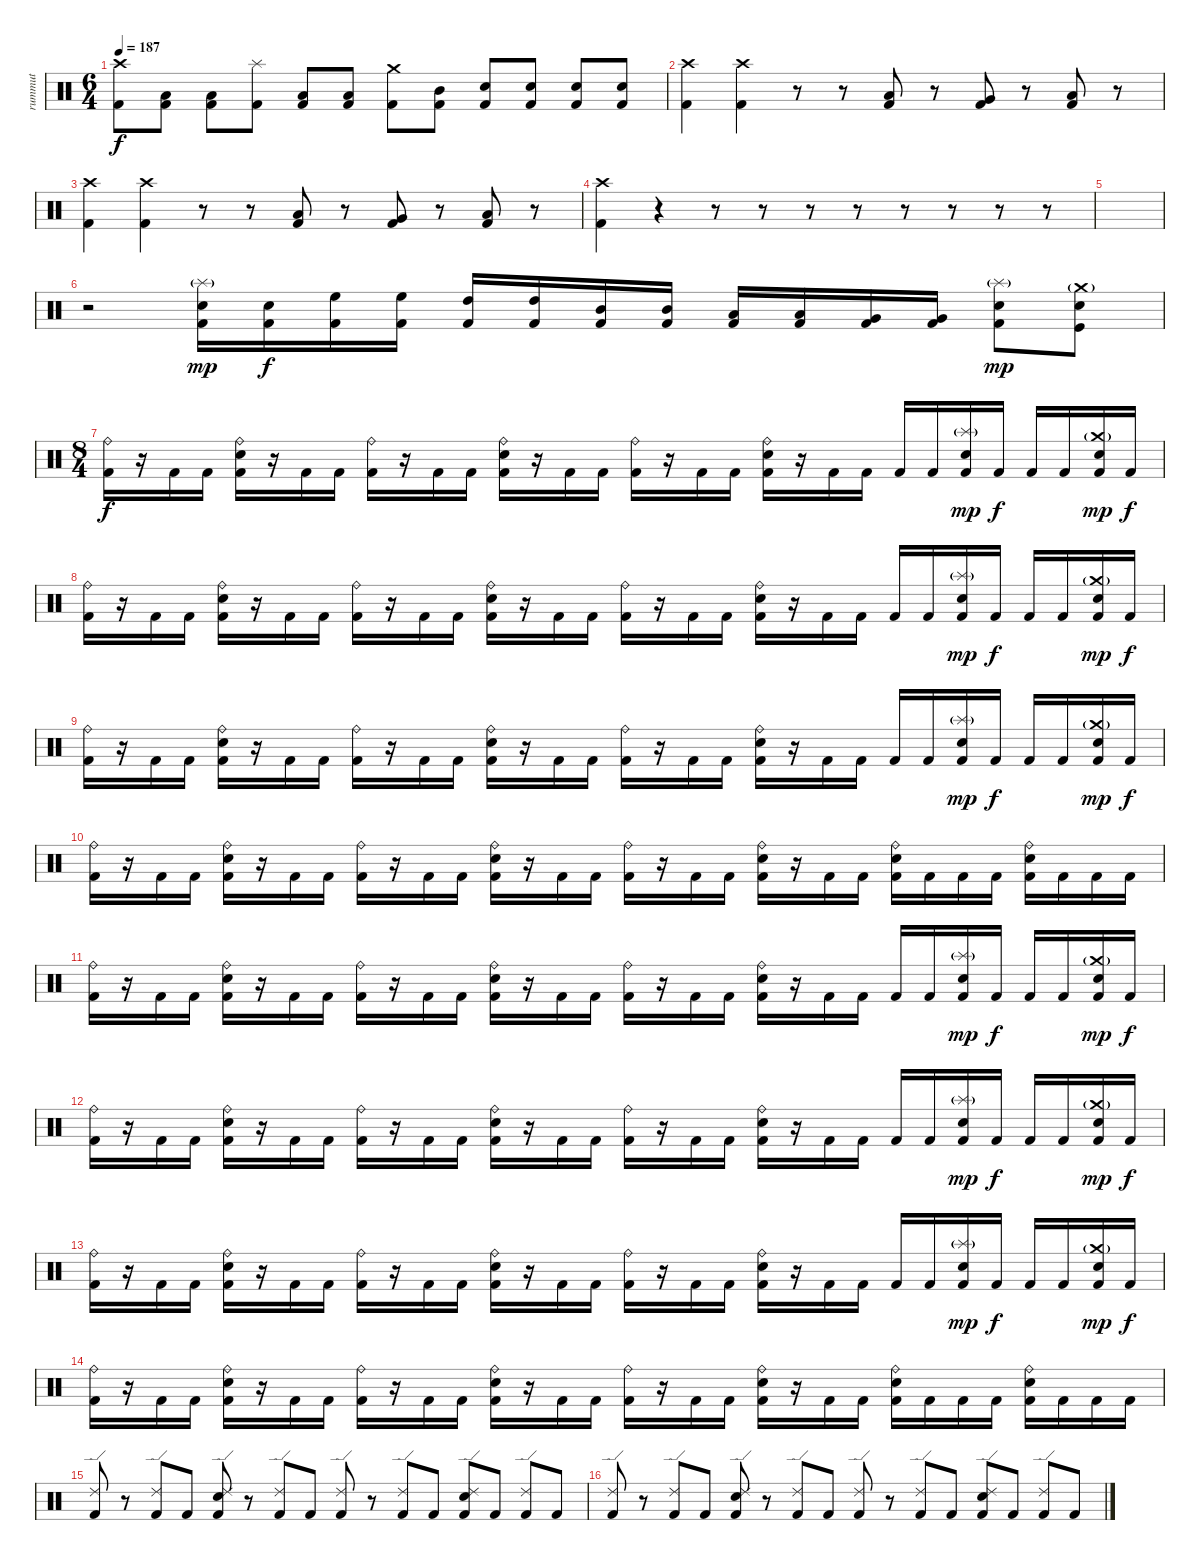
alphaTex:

\track ("rummut" "rummut") {instrument percussion}
\staff {score}
\articulation defaults
\ts (6 4)
\tempo 187
\clef neutral
\ks c
("Kick (hit) 2" "Crash high (hit)").8{dy f} ("Kick (hit) 2" "Low Tom (hit)").8 ("Kick (hit) 2" "Low Tom (hit)").8 ("Kick (hit) 2" "Splash (hit)").8 ("Kick (hit) 2" "Low Tom (hit)").8 ("Kick (hit) 2" "Low Tom (hit)").8 ("Kick (hit) 2" "Crash medium (hit)").8 ("Kick (hit) 2" "Mid Tom (hit)").8 ("Kick (hit) 2" "Snare (hit) 2").8 ("Kick (hit) 2" "Snare (hit) 2").8 ("Kick (hit) 2" "Snare (hit) 2").8 ("Kick (hit) 2" "Snare (hit) 2").8 |
("Kick (hit) 2" "Crash high (hit)").4 ("Kick (hit) 2" "Crash high (hit)").4 r.8 r.8 ("Kick (hit) 2" "Low Tom (hit)").8 r.8 ("Kick (hit) 2" "Very Low Tom (hit)").8 r.8 ("Kick (hit) 2" "Low Floor Tom (hit)").8 r.8 |
("Kick (hit) 2" "Crash high (hit)").4 ("Kick (hit) 2" "Crash high (hit)").4 r.8 r.8 ("Kick (hit) 2" "Low Tom (hit)").8 r.8 ("Kick (hit) 2" "Very Low Tom (hit)").8 r.8 ("Kick (hit) 2" "Low Floor Tom (hit)").8 r.8 |
("Kick (hit) 2" "Crash high (hit)").4 r.4 r.8 r.8 r.8 r.8 r.8 r.8 r.8 r.8 |
|
r.2 ("Kick (hit) 2" "Snare (hit) 2" "Splash (hit)"{g}).16{dy mp} ("Kick (hit) 2" "Snare (hit) 2").16{dy f} ("Kick (hit) 2" "High Floor Tom (hit)").16 ("Kick (hit) 2" "High Floor Tom (hit)").16 ("Kick (hit) 2" "High Tom (hit)").16 ("Kick (hit) 2" "High Tom (hit)").16 ("Kick (hit) 2" "Mid Tom (hit)").16 ("Kick (hit) 2" "Mid Tom (hit)").16 ("Kick (hit) 2" "Low Tom (hit)").16 ("Kick (hit) 2" "Low Tom (hit)").16 ("Kick (hit) 2" "Very Low Tom (hit)").16 ("Kick (hit) 2" "Very Low Tom (hit)").16 ("Kick (hit) 2" "Snare (hit) 2" "Splash (hit)"{g}).8{dy mp} ("Kick (hit)" "Snare (hit) 2" "Crash medium (hit)"{g}).8 |
\ts (8 4)
("Kick (hit) 2" "Ride (bell)").16{dy f} r.16 "Kick (hit) 2".16 "Kick (hit) 2".16 ("Kick (hit) 2" "Ride (bell)" "Snare (hit) 2").16 r.16 "Kick (hit) 2".16 "Kick (hit) 2".16 ("Kick (hit) 2" "Ride (bell)").16 r.16 "Kick (hit) 2".16 "Kick (hit) 2".16 ("Kick (hit) 2" "Ride (bell)" "Snare (hit) 2").16 r.16 "Kick (hit) 2".16 "Kick (hit) 2".16 ("Kick (hit) 2" "Ride (bell)").16 r.16 "Kick (hit) 2".16 "Kick (hit) 2".16 ("Kick (hit) 2" "Ride (bell)" "Snare (hit) 2").16 r.16 "Kick (hit) 2".16 "Kick (hit) 2".16 "Kick (hit) 2".16 "Kick (hit) 2".16 ("Kick (hit) 2" "Snare (hit) 2" "Splash (hit)"{g}).16{dy mp} "Kick (hit) 2".16{dy f} "Kick (hit) 2".16 "Kick (hit) 2".16 ("Kick (hit) 2" "Snare (hit) 2" "Crash medium (hit)"{g}).16{dy mp} "Kick (hit) 2".16{dy f} |
("Kick (hit) 2" "Ride (bell)").16 r.16 "Kick (hit) 2".16 "Kick (hit) 2".16 ("Kick (hit) 2" "Ride (bell)" "Snare (hit) 2").16 r.16 "Kick (hit) 2".16 "Kick (hit) 2".16 ("Kick (hit) 2" "Ride (bell)").16 r.16 "Kick (hit) 2".16 "Kick (hit) 2".16 ("Kick (hit) 2" "Ride (bell)" "Snare (hit) 2").16 r.16 "Kick (hit) 2".16 "Kick (hit) 2".16 ("Kick (hit) 2" "Ride (bell)").16 r.16 "Kick (hit) 2".16 "Kick (hit) 2".16 ("Kick (hit) 2" "Ride (bell)" "Snare (hit) 2").16 r.16 "Kick (hit) 2".16 "Kick (hit) 2".16 "Kick (hit) 2".16 "Kick (hit) 2".16 ("Kick (hit) 2" "Snare (hit) 2" "Splash (hit)"{g}).16{dy mp} "Kick (hit) 2".16{dy f} "Kick (hit) 2".16 "Kick (hit) 2".16 ("Kick (hit) 2" "Snare (hit) 2" "Crash medium (hit)"{g}).16{dy mp} "Kick (hit) 2".16{dy f} |
("Kick (hit) 2" "Ride (bell)").16 r.16 "Kick (hit) 2".16 "Kick (hit) 2".16 ("Kick (hit) 2" "Ride (bell)" "Snare (hit) 2").16 r.16 "Kick (hit) 2".16 "Kick (hit) 2".16 ("Kick (hit) 2" "Ride (bell)").16 r.16 "Kick (hit) 2".16 "Kick (hit) 2".16 ("Kick (hit) 2" "Ride (bell)" "Snare (hit) 2").16 r.16 "Kick (hit) 2".16 "Kick (hit) 2".16 ("Kick (hit) 2" "Ride (bell)").16 r.16 "Kick (hit) 2".16 "Kick (hit) 2".16 ("Kick (hit) 2" "Ride (bell)" "Snare (hit) 2").16 r.16 "Kick (hit) 2".16 "Kick (hit) 2".16 "Kick (hit) 2".16 "Kick (hit) 2".16 ("Kick (hit) 2" "Snare (hit) 2" "Splash (hit)"{g}).16{dy mp} "Kick (hit) 2".16{dy f} "Kick (hit) 2".16 "Kick (hit) 2".16 ("Kick (hit) 2" "Snare (hit) 2" "Crash medium (hit)"{g}).16{dy mp} "Kick (hit) 2".16{dy f} |
("Kick (hit) 2" "Ride (bell)").16 r.16 "Kick (hit) 2".16 "Kick (hit) 2".16 ("Kick (hit) 2" "Ride (bell)" "Snare (hit) 2").16 r.16 "Kick (hit) 2".16 "Kick (hit) 2".16 ("Kick (hit) 2" "Ride (bell)").16 r.16 "Kick (hit) 2".16 "Kick (hit) 2".16 ("Kick (hit) 2" "Ride (bell)" "Snare (hit) 2").16 r.16 "Kick (hit) 2".16 "Kick (hit) 2".16 ("Kick (hit) 2" "Ride (bell)").16 r.16 "Kick (hit) 2".16 "Kick (hit) 2".16 ("Kick (hit) 2" "Ride (bell)" "Snare (hit) 2").16 r.16 "Kick (hit) 2".16 "Kick (hit) 2".16 ("Kick (hit) 2" "Ride (bell)" "Snare (hit) 2").16 "Kick (hit) 2".16 "Kick (hit) 2".16 "Kick (hit) 2".16 ("Kick (hit) 2" "Ride (bell)" "Snare (hit) 2").16 "Kick (hit) 2".16 "Kick (hit) 2".16 "Kick (hit) 2".16 |
("Kick (hit) 2" "Ride (bell)").16 r.16 "Kick (hit) 2".16 "Kick (hit) 2".16 ("Kick (hit) 2" "Ride (bell)" "Snare (hit) 2").16 r.16 "Kick (hit) 2".16 "Kick (hit) 2".16 ("Kick (hit) 2" "Ride (bell)").16 r.16 "Kick (hit) 2".16 "Kick (hit) 2".16 ("Kick (hit) 2" "Ride (bell)" "Snare (hit) 2").16 r.16 "Kick (hit) 2".16 "Kick (hit) 2".16 ("Kick (hit) 2" "Ride (bell)").16 r.16 "Kick (hit) 2".16 "Kick (hit) 2".16 ("Kick (hit) 2" "Ride (bell)" "Snare (hit) 2").16 r.16 "Kick (hit) 2".16 "Kick (hit) 2".16 "Kick (hit) 2".16 "Kick (hit) 2".16 ("Kick (hit) 2" "Snare (hit) 2" "Splash (hit)"{g}).16{dy mp} "Kick (hit) 2".16{dy f} "Kick (hit) 2".16 "Kick (hit) 2".16 ("Kick (hit) 2" "Snare (hit) 2" "Crash medium (hit)"{g}).16{dy mp} "Kick (hit) 2".16{dy f} |
("Kick (hit) 2" "Ride (bell)").16 r.16 "Kick (hit) 2".16 "Kick (hit) 2".16 ("Kick (hit) 2" "Ride (bell)" "Snare (hit) 2").16 r.16 "Kick (hit) 2".16 "Kick (hit) 2".16 ("Kick (hit) 2" "Ride (bell)").16 r.16 "Kick (hit) 2".16 "Kick (hit) 2".16 ("Kick (hit) 2" "Ride (bell)" "Snare (hit) 2").16 r.16 "Kick (hit) 2".16 "Kick (hit) 2".16 ("Kick (hit) 2" "Ride (bell)").16 r.16 "Kick (hit) 2".16 "Kick (hit) 2".16 ("Kick (hit) 2" "Ride (bell)" "Snare (hit) 2").16 r.16 "Kick (hit) 2".16 "Kick (hit) 2".16 "Kick (hit) 2".16 "Kick (hit) 2".16 ("Kick (hit) 2" "Snare (hit) 2" "Splash (hit)"{g}).16{dy mp} "Kick (hit) 2".16{dy f} "Kick (hit) 2".16 "Kick (hit) 2".16 ("Kick (hit) 2" "Snare (hit) 2" "Crash medium (hit)"{g}).16{dy mp} "Kick (hit) 2".16{dy f} |
("Kick (hit) 2" "Ride (bell)").16 r.16 "Kick (hit) 2".16 "Kick (hit) 2".16 ("Kick (hit) 2" "Ride (bell)" "Snare (hit) 2").16 r.16 "Kick (hit) 2".16 "Kick (hit) 2".16 ("Kick (hit) 2" "Ride (bell)").16 r.16 "Kick (hit) 2".16 "Kick (hit) 2".16 ("Kick (hit) 2" "Ride (bell)" "Snare (hit) 2").16 r.16 "Kick (hit) 2".16 "Kick (hit) 2".16 ("Kick (hit) 2" "Ride (bell)").16 r.16 "Kick (hit) 2".16 "Kick (hit) 2".16 ("Kick (hit) 2" "Ride (bell)" "Snare (hit) 2").16 r.16 "Kick (hit) 2".16 "Kick (hit) 2".16 "Kick (hit) 2".16 "Kick (hit) 2".16 ("Kick (hit) 2" "Snare (hit) 2" "Splash (hit)"{g}).16{dy mp} "Kick (hit) 2".16{dy f} "Kick (hit) 2".16 "Kick (hit) 2".16 ("Kick (hit) 2" "Snare (hit) 2" "Crash medium (hit)"{g}).16{dy mp} "Kick (hit) 2".16{dy f} |
("Kick (hit) 2" "Ride (bell)").16 r.16 "Kick (hit) 2".16 "Kick (hit) 2".16 ("Kick (hit) 2" "Ride (bell)" "Snare (hit) 2").16 r.16 "Kick (hit) 2".16 "Kick (hit) 2".16 ("Kick (hit) 2" "Ride (bell)").16 r.16 "Kick (hit) 2".16 "Kick (hit) 2".16 ("Kick (hit) 2" "Ride (bell)" "Snare (hit) 2").16 r.16 "Kick (hit) 2".16 "Kick (hit) 2".16 ("Kick (hit) 2" "Ride (bell)").16 r.16 "Kick (hit) 2".16 "Kick (hit) 2".16 ("Kick (hit) 2" "Ride (bell)" "Snare (hit) 2").16 r.16 "Kick (hit) 2".16 "Kick (hit) 2".16 ("Kick (hit) 2" "Ride (bell)" "Snare (hit) 2").16 "Kick (hit) 2".16 "Kick (hit) 2".16 "Kick (hit) 2".16 ("Kick (hit) 2" "Ride (bell)" "Snare (hit) 2").16 "Kick (hit) 2".16 "Kick (hit) 2".16 "Kick (hit) 2".16 |
("Kick (hit) 2" "Ride (edge) 2").8 r.8 ("Kick (hit) 2" "Ride (edge) 2").8 "Kick (hit) 2".8 ("Kick (hit) 2" "Ride (edge) 2" "Snare (hit) 2").8 r.8 ("Kick (hit) 2" "Ride (edge) 2").8 "Kick (hit) 2".8 ("Kick (hit) 2" "Ride (edge) 2").8 r.8 ("Kick (hit) 2" "Ride (edge) 2").8 "Kick (hit) 2".8 ("Kick (hit) 2" "Ride (edge) 2" "Snare (hit) 2").8 "Kick (hit) 2".8 ("Kick (hit) 2" "Ride (edge) 2").8 "Kick (hit) 2".8 |
("Kick (hit) 2" "Ride (edge) 2").8 r.8 ("Kick (hit) 2" "Ride (edge) 2").8 "Kick (hit) 2".8 ("Kick (hit) 2" "Ride (edge) 2" "Snare (hit) 2").8 r.8 ("Kick (hit) 2" "Ride (edge) 2").8 "Kick (hit) 2".8 ("Kick (hit) 2" "Ride (edge) 2").8 r.8 ("Kick (hit) 2" "Ride (edge) 2").8 "Kick (hit) 2".8 ("Kick (hit) 2" "Ride (edge) 2" "Snare (hit) 2").8 "Kick (hit) 2".8 ("Kick (hit) 2" "Ride (edge) 2").8 "Kick (hit) 2".8
